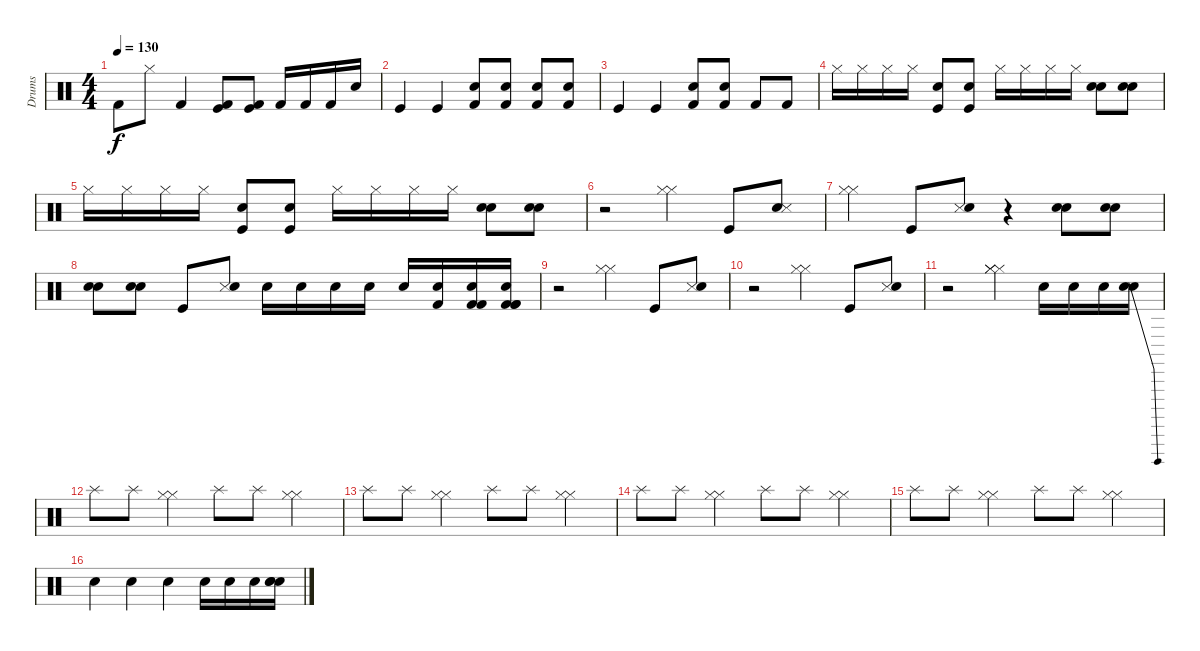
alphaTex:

\track ("Drums" "Drums") {instrument percussion}
\staff {score}
\articulation defaults
\ts (4 4)
\tempo 130
\clef neutral
\ks c "Kick (hit) 2".8{dy f} "Hi-Hat (closed)".8 "Kick (hit) 2".4
("Kick (hit) 2" "Kick (hit)").8 ("Kick (hit)" "Kick (hit) 2").8 "Kick (hit) 2".16 "Kick (hit) 2".16 "Kick (hit) 2".16 "Snare (hit) 2".16 |
"Kick (hit)".4 "Kick (hit)".4 ("Kick (hit) 2" "Electric Snare (hit)").8 ("Kick (hit) 2" "Electric Snare (hit)").8 ("Kick (hit) 2" "Electric Snare (hit)").8 ("Kick (hit) 2" "Electric Snare (hit)").8 |
"Kick (hit)".4 "Kick (hit)".4 ("Kick (hit) 2" "Electric Snare (hit)").8 ("Kick (hit) 2" "Electric Snare (hit)").8 "Kick (hit) 2".8 "Kick (hit) 2".8 |
"Hi-Hat (closed)".16 "Hi-Hat (closed)".16 "Hi-Hat (closed)".16 "Hi-Hat (closed)".16 ("Kick (hit)" "Electric Snare (hit)").8 ("Kick (hit)" "Electric Snare (hit)").8 "Hi-Hat (closed)".16 "Hi-Hat (closed)".16 "Hi-Hat (closed)".16 "Hi-Hat (closed)".16 ("Snare (hit) 2" "Electric Snare (hit)").8 ("Snare (hit) 2" "Electric Snare (hit)").8 |
"Hi-Hat (closed)".16 "Hi-Hat (closed)".16 "Hi-Hat (closed)".16 "Hi-Hat (closed)".16 ("Kick (hit)" "Electric Snare (hit)").8 ("Kick (hit)" "Electric Snare (hit)").8 "Hi-Hat (closed)".16 "Hi-Hat (closed)".16 "Hi-Hat (closed)".16 "Hi-Hat (closed)".16 ("Snare (hit) 2" "Electric Snare (hit)").8 ("Snare (hit) 2" "Electric Snare (hit)").8 |
r.2 ("Hi-Hat (closed)" "Hi-Hat (closed)").4 "Kick (hit)".8 ("Snare (hit) 2" "Snare (side stick) 3").8 |
("Hi-Hat (closed)" "Hi-Hat (closed)").4 "Kick (hit)".8 ("Snare (side stick) 3" "Snare (hit) 2").8 r.4 ("Snare (hit) 2" "Snare (hit) 2").8 ("Snare (hit) 2" "Snare (hit) 2").8 |
("Snare (hit) 2" "Snare (hit) 2").8 ("Snare (hit) 2" "Snare (hit) 2").8 "Kick (hit)".8 ("Snare (side stick) 3" "Snare (hit) 2").8 "Electric Snare (hit)".16 "Electric Snare (hit)".16 "Electric Snare (hit)".16 "Electric Snare (hit)".16 "Electric Snare (hit)".16 ("Kick (hit) 2" "Electric Snare (hit)").16 ("Kick (hit) 2" "Kick (hit) 2" "Electric Snare (hit)").16 ("Kick (hit) 2" "Kick (hit) 2" "Kick (hit) 2" "Electric Snare (hit)").16 |
r.2 ("Hi-Hat (closed)" "Hi-Hat (closed)").4 "Kick (hit)".8 ("Snare (side stick) 3" "Snare (hit) 2").8 |
r.2 ("Hi-Hat (closed)" "Hi-Hat (closed)").4 "Kick (hit)".8 ("Snare (side stick) 3" "Snare (hit) 2").8 |
r.2 ("Hi-Hat (closed)" "Hi-Hat (closed)" "Hi-Hat (closed)").4 "Snare (hit) 2".16 "Snare (hit) 2".16 "Snare (hit) 2".16 ("Snare (hit) 2"{be (bend 0 0 60 4)} "Electric Snare (hit)").16 |
"Splash (hit)".8 "Splash (hit)".8 ("Hi-Hat (closed)" "Hi-Hat (closed)").4 "Splash (hit)".8 "Splash (hit)".8 ("Hi-Hat (closed)" "Hi-Hat (closed)").4 |
"Splash (hit)".8 "Splash (hit)".8 ("Hi-Hat (closed)" "Hi-Hat (closed)").4 "Splash (hit)".8 "Splash (hit)".8 ("Hi-Hat (closed)" "Hi-Hat (closed)").4 |
"Splash (hit)".8 "Splash (hit)".8 ("Hi-Hat (closed)" "Hi-Hat (closed)").4 "Splash (hit)".8 "Splash (hit)".8 ("Hi-Hat (closed)" "Hi-Hat (closed)").4 |
"Splash (hit)".8 "Splash (hit)".8 ("Hi-Hat (closed)" "Hi-Hat (closed)").4 "Splash (hit)".8 "Splash (hit)".8 ("Hi-Hat (closed)" "Hi-Hat (closed)").4 |
"Electric Snare (hit)".4 "Electric Snare (hit)".4 "Electric Snare (hit)".4 "Electric Snare (hit)".16 "Electric Snare (hit)".16 "Electric Snare (hit)".16 ("Electric Snare (hit)" "Electric Snare (hit)" "Electric Snare (hit)").16
